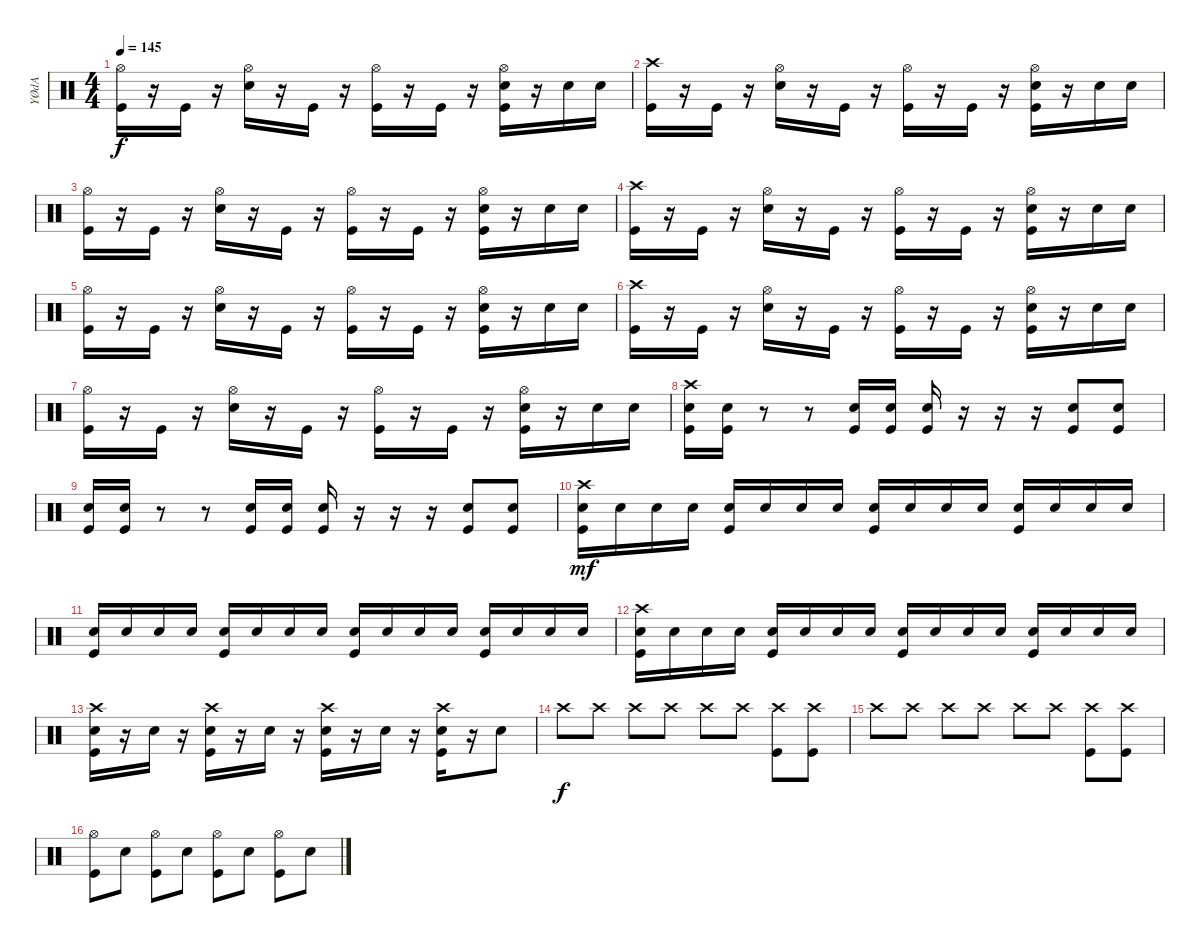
\track ("YØdA" "YØdA") {instrument percussion}
\staff {score}
\articulation defaults
\ts (4 4)
\tempo 145
\clef neutral
\ks c
("Hi-Hat (open)" "Kick (hit)").16{dy f} r.16 "Kick (hit)".16 r.16 ("Hi-Hat (open)" "Electric Snare (hit)").16 r.16 "Kick (hit)".16 r.16 ("Hi-Hat (open)" "Kick (hit)").16 r.16 "Kick (hit)".16 r.16 ("Hi-Hat (open)" "Electric Snare (hit)" "Kick (hit)").16 r.16 "Electric Snare (hit)".16 "Electric Snare (hit)".16 |
("Crash high (hit)" "Kick (hit)").16 r.16 "Kick (hit)".16 r.16 ("Hi-Hat (open)" "Electric Snare (hit)").16 r.16 "Kick (hit)".16 r.16 ("Hi-Hat (open)" "Kick (hit)").16 r.16 "Kick (hit)".16 r.16 ("Hi-Hat (open)" "Electric Snare (hit)" "Kick (hit)").16 r.16 "Electric Snare (hit)".16 "Electric Snare (hit)".16 |
("Hi-Hat (open)" "Kick (hit)").16 r.16 "Kick (hit)".16 r.16 ("Hi-Hat (open)" "Electric Snare (hit)").16 r.16 "Kick (hit)".16 r.16 ("Hi-Hat (open)" "Kick (hit)").16 r.16 "Kick (hit)".16 r.16 ("Hi-Hat (open)" "Electric Snare (hit)" "Kick (hit)").16 r.16 "Electric Snare (hit)".16 "Electric Snare (hit)".16 |
("Crash high (hit)" "Kick (hit)").16 r.16 "Kick (hit)".16 r.16 ("Hi-Hat (open)" "Electric Snare (hit)").16 r.16 "Kick (hit)".16 r.16 ("Hi-Hat (open)" "Kick (hit)").16 r.16 "Kick (hit)".16 r.16 ("Hi-Hat (open)" "Electric Snare (hit)" "Kick (hit)").16 r.16 "Electric Snare (hit)".16 "Electric Snare (hit)".16 |
("Hi-Hat (open)" "Kick (hit)").16 r.16 "Kick (hit)".16 r.16 ("Hi-Hat (open)" "Electric Snare (hit)").16 r.16 "Kick (hit)".16 r.16 ("Hi-Hat (open)" "Kick (hit)").16 r.16 "Kick (hit)".16 r.16 ("Hi-Hat (open)" "Electric Snare (hit)" "Kick (hit)").16 r.16 "Electric Snare (hit)".16 "Electric Snare (hit)".16 |
("Crash high (hit)" "Kick (hit)").16 r.16 "Kick (hit)".16 r.16 ("Hi-Hat (open)" "Electric Snare (hit)").16 r.16 "Kick (hit)".16 r.16 ("Hi-Hat (open)" "Kick (hit)").16 r.16 "Kick (hit)".16 r.16 ("Hi-Hat (open)" "Electric Snare (hit)" "Kick (hit)").16 r.16 "Electric Snare (hit)".16 "Electric Snare (hit)".16 |
("Hi-Hat (open)" "Kick (hit)").16 r.16 "Kick (hit)".16 r.16 ("Hi-Hat (open)" "Electric Snare (hit)").16 r.16 "Kick (hit)".16 r.16 ("Hi-Hat (open)" "Kick (hit)").16 r.16 "Kick (hit)".16 r.16 ("Hi-Hat (open)" "Electric Snare (hit)" "Kick (hit)").16 r.16 "Electric Snare (hit)".16 "Electric Snare (hit)".16 |
("Crash high (hit)" "Electric Snare (hit)" "Kick (hit)").16 ("Electric Snare (hit)" "Kick (hit)").16 r.8 r.8 ("Electric Snare (hit)" "Kick (hit)").16 ("Electric Snare (hit)" "Kick (hit)").16 ("Electric Snare (hit)" "Kick (hit)").16 r.16 r.16 r.16 ("Electric Snare (hit)" "Kick (hit)").8 ("Electric Snare (hit)" "Kick (hit)").8 |
("Electric Snare (hit)" "Kick (hit)").16 ("Electric Snare (hit)" "Kick (hit)").16 r.8 r.8 ("Electric Snare (hit)" "Kick (hit)").16 ("Electric Snare (hit)" "Kick (hit)").16 ("Electric Snare (hit)" "Kick (hit)").16 r.16 r.16 r.16 ("Electric Snare (hit)" "Kick (hit)").8 ("Electric Snare (hit)" "Kick (hit)").8 |
("Crash high (hit)" "Electric Snare (hit)" "Kick (hit)").16{dy mf} "Electric Snare (hit)".16 "Electric Snare (hit)".16 "Electric Snare (hit)".16 ("Electric Snare (hit)" "Kick (hit)").16 "Electric Snare (hit)".16 "Electric Snare (hit)".16 "Electric Snare (hit)".16 ("Electric Snare (hit)" "Kick (hit)").16 "Electric Snare (hit)".16 "Electric Snare (hit)".16 "Electric Snare (hit)".16 ("Electric Snare (hit)" "Kick (hit)").16 "Electric Snare (hit)".16 "Electric Snare (hit)".16 "Electric Snare (hit)".16 |
("Electric Snare (hit)" "Kick (hit)").16 "Electric Snare (hit)".16 "Electric Snare (hit)".16 "Electric Snare (hit)".16 ("Electric Snare (hit)" "Kick (hit)").16 "Electric Snare (hit)".16 "Electric Snare (hit)".16 "Electric Snare (hit)".16 ("Electric Snare (hit)" "Kick (hit)").16 "Electric Snare (hit)".16 "Electric Snare (hit)".16 "Electric Snare (hit)".16 ("Electric Snare (hit)" "Kick (hit)").16 "Electric Snare (hit)".16 "Electric Snare (hit)".16 "Electric Snare (hit)".16 |
("Crash high (hit)" "Electric Snare (hit)" "Kick (hit)").16 "Electric Snare (hit)".16 "Electric Snare (hit)".16 "Electric Snare (hit)".16 ("Electric Snare (hit)" "Kick (hit)").16 "Electric Snare (hit)".16 "Electric Snare (hit)".16 "Electric Snare (hit)".16 ("Electric Snare (hit)" "Kick (hit)").16 "Electric Snare (hit)".16 "Electric Snare (hit)".16 "Electric Snare (hit)".16 ("Electric Snare (hit)" "Kick (hit)").16 "Electric Snare (hit)".16 "Electric Snare (hit)".16 "Electric Snare (hit)".16 |
("Crash high (hit)" "Electric Snare (hit)" "Kick (hit)").16 r.16 "Electric Snare (hit)".16 r.16 ("Crash high (hit)" "Electric Snare (hit)" "Kick (hit)").16 r.16 "Electric Snare (hit)".16 r.16 ("Crash high (hit)" "Electric Snare (hit)" "Kick (hit)").16 r.16 "Electric Snare (hit)".16 r.16 ("Crash high (hit)" "Electric Snare (hit)" "Kick (hit)").16 r.16 "Electric Snare (hit)".8 |
"Crash high (hit)".8{dy f} "Crash high (hit)".8 "Crash high (hit)".8 "Crash high (hit)".8 "Crash high (hit)".8 "Crash high (hit)".8 ("Crash high (hit)" "Kick (hit)").8 ("Crash high (hit)" "Kick (hit)").8 |
"Crash high (hit)".8 "Crash high (hit)".8 "Crash high (hit)".8 "Crash high (hit)".8 "Crash high (hit)".8 "Crash high (hit)".8 ("Crash high (hit)" "Kick (hit)").8 ("Crash high (hit)" "Kick (hit)").8 |
("Hi-Hat (open)" "Kick (hit)").8 "Electric Snare (hit)".8 ("Hi-Hat (open)" "Kick (hit)").8 "Electric Snare (hit)".8 ("Hi-Hat (open)" "Kick (hit)").8 "Electric Snare (hit)".8 ("Hi-Hat (open)" "Kick (hit)").8 "Electric Snare (hit)".8
